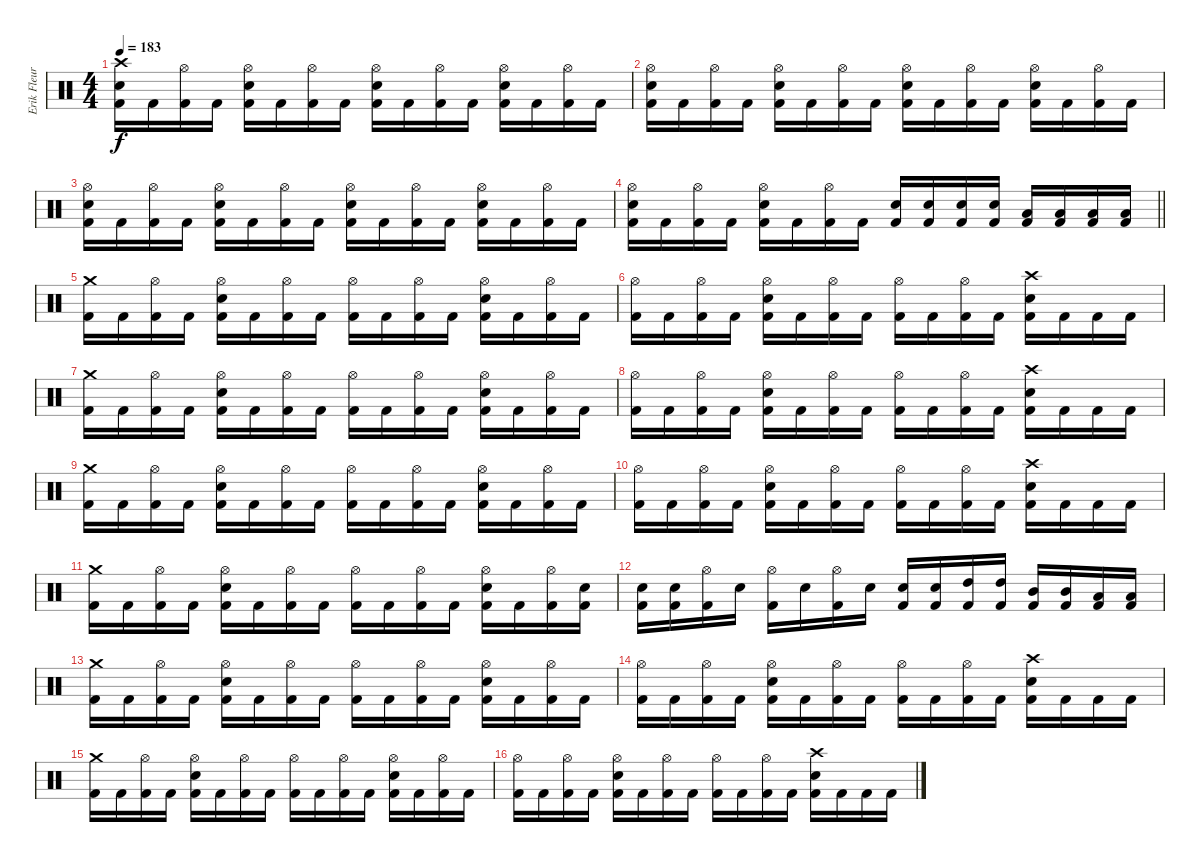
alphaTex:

\track ("Erik Fleuren" "Erik Fleur") {instrument percussion}
\staff {score}
\articulation defaults
\ts (4 4)
\tempo 183
\clef neutral
\ks c
("Crash high (hit)" "Electric Snare (hit)" "Kick (hit) 2").16{dy f} "Kick (hit) 2".16 ("Hi-Hat (open)" "Kick (hit) 2").16 "Kick (hit) 2".16 ("Hi-Hat (open)" "Electric Snare (hit)" "Kick (hit) 2").16 "Kick (hit) 2".16 ("Hi-Hat (open)" "Kick (hit) 2").16 "Kick (hit) 2".16 ("Hi-Hat (open)" "Electric Snare (hit)" "Kick (hit) 2").16 "Kick (hit) 2".16 ("Hi-Hat (open)" "Kick (hit) 2").16 "Kick (hit) 2".16 ("Hi-Hat (open)" "Electric Snare (hit)" "Kick (hit) 2").16 "Kick (hit) 2".16 ("Hi-Hat (open)" "Kick (hit) 2").16 "Kick (hit) 2".16 |
("Hi-Hat (open)" "Electric Snare (hit)" "Kick (hit) 2").16 "Kick (hit) 2".16 ("Hi-Hat (open)" "Kick (hit) 2").16 "Kick (hit) 2".16 ("Hi-Hat (open)" "Electric Snare (hit)" "Kick (hit) 2").16 "Kick (hit) 2".16 ("Hi-Hat (open)" "Kick (hit) 2").16 "Kick (hit) 2".16 ("Hi-Hat (open)" "Electric Snare (hit)" "Kick (hit) 2").16 "Kick (hit) 2".16 ("Hi-Hat (open)" "Kick (hit) 2").16 "Kick (hit) 2".16 ("Hi-Hat (open)" "Electric Snare (hit)" "Kick (hit) 2").16 "Kick (hit) 2".16 ("Hi-Hat (open)" "Kick (hit) 2").16 "Kick (hit) 2".16 |
("Hi-Hat (open)" "Electric Snare (hit)" "Kick (hit) 2").16 "Kick (hit) 2".16 ("Hi-Hat (open)" "Kick (hit) 2").16 "Kick (hit) 2".16 ("Hi-Hat (open)" "Electric Snare (hit)" "Kick (hit) 2").16 "Kick (hit) 2".16 ("Hi-Hat (open)" "Kick (hit) 2").16 "Kick (hit) 2".16 ("Hi-Hat (open)" "Electric Snare (hit)" "Kick (hit) 2").16 "Kick (hit) 2".16 ("Hi-Hat (open)" "Kick (hit) 2").16 "Kick (hit) 2".16 ("Hi-Hat (open)" "Electric Snare (hit)" "Kick (hit) 2").16 "Kick (hit) 2".16 ("Hi-Hat (open)" "Kick (hit) 2").16 "Kick (hit) 2".16 |
\barLineRight lightlight
("Hi-Hat (open)" "Electric Snare (hit)" "Kick (hit) 2").16 "Kick (hit) 2".16 ("Hi-Hat (open)" "Kick (hit) 2").16 "Kick (hit) 2".16 ("Hi-Hat (open)" "Electric Snare (hit)" "Kick (hit) 2").16 "Kick (hit) 2".16 ("Hi-Hat (open)" "Kick (hit) 2").16 "Kick (hit) 2".16 ("Electric Snare (hit)" "Kick (hit) 2").16 ("Electric Snare (hit)" "Kick (hit) 2").16 ("Electric Snare (hit)" "Kick (hit) 2").16 ("Electric Snare (hit)" "Kick (hit) 2").16 ("Low Tom (hit)" "Kick (hit) 2").16 ("Low Tom (hit)" "Kick (hit) 2").16 ("Low Tom (hit)" "Kick (hit) 2").16 ("Low Tom (hit)" "Kick (hit) 2").16 |
("Crash medium (hit)" "Kick (hit) 2").16 "Kick (hit) 2".16 ("Hi-Hat (open)" "Kick (hit) 2").16 "Kick (hit) 2".16 ("Hi-Hat (open)" "Electric Snare (hit)" "Kick (hit) 2").16 "Kick (hit) 2".16 ("Hi-Hat (open)" "Kick (hit) 2").16 "Kick (hit) 2".16 ("Hi-Hat (open)" "Kick (hit) 2").16 "Kick (hit) 2".16 ("Hi-Hat (open)" "Kick (hit) 2").16 "Kick (hit) 2".16 ("Hi-Hat (open)" "Electric Snare (hit)" "Kick (hit) 2").16 "Kick (hit) 2".16 ("Hi-Hat (open)" "Kick (hit) 2").16 "Kick (hit) 2".16 |
("Hi-Hat (open)" "Kick (hit) 2").16 "Kick (hit) 2".16 ("Hi-Hat (open)" "Kick (hit) 2").16 "Kick (hit) 2".16 ("Hi-Hat (open)" "Electric Snare (hit)" "Kick (hit) 2").16 "Kick (hit) 2".16 ("Hi-Hat (open)" "Kick (hit) 2").16 "Kick (hit) 2".16 ("Hi-Hat (open)" "Kick (hit) 2").16 "Kick (hit) 2".16 ("Hi-Hat (open)" "Kick (hit) 2").16 "Kick (hit) 2".16 ("Crash high (hit)" "Electric Snare (hit)" "Kick (hit) 2").16 "Kick (hit) 2".16 "Kick (hit) 2".16 "Kick (hit) 2".16 |
("Crash medium (hit)" "Kick (hit) 2").16 "Kick (hit) 2".16 ("Hi-Hat (open)" "Kick (hit) 2").16 "Kick (hit) 2".16 ("Hi-Hat (open)" "Electric Snare (hit)" "Kick (hit) 2").16 "Kick (hit) 2".16 ("Hi-Hat (open)" "Kick (hit) 2").16 "Kick (hit) 2".16 ("Hi-Hat (open)" "Kick (hit) 2").16 "Kick (hit) 2".16 ("Hi-Hat (open)" "Kick (hit) 2").16 "Kick (hit) 2".16 ("Hi-Hat (open)" "Electric Snare (hit)" "Kick (hit) 2").16 "Kick (hit) 2".16 ("Hi-Hat (open)" "Kick (hit) 2").16 "Kick (hit) 2".16 |
("Hi-Hat (open)" "Kick (hit) 2").16 "Kick (hit) 2".16 ("Hi-Hat (open)" "Kick (hit) 2").16 "Kick (hit) 2".16 ("Hi-Hat (open)" "Electric Snare (hit)" "Kick (hit) 2").16 "Kick (hit) 2".16 ("Hi-Hat (open)" "Kick (hit) 2").16 "Kick (hit) 2".16 ("Hi-Hat (open)" "Kick (hit) 2").16 "Kick (hit) 2".16 ("Hi-Hat (open)" "Kick (hit) 2").16 "Kick (hit) 2".16 ("Crash high (hit)" "Electric Snare (hit)" "Kick (hit) 2").16 "Kick (hit) 2".16 "Kick (hit) 2".16 "Kick (hit) 2".16 |
("Crash medium (hit)" "Kick (hit) 2").16 "Kick (hit) 2".16 ("Hi-Hat (open)" "Kick (hit) 2").16 "Kick (hit) 2".16 ("Hi-Hat (open)" "Electric Snare (hit)" "Kick (hit) 2").16 "Kick (hit) 2".16 ("Hi-Hat (open)" "Kick (hit) 2").16 "Kick (hit) 2".16 ("Hi-Hat (open)" "Kick (hit) 2").16 "Kick (hit) 2".16 ("Hi-Hat (open)" "Kick (hit) 2").16 "Kick (hit) 2".16 ("Hi-Hat (open)" "Electric Snare (hit)" "Kick (hit) 2").16 "Kick (hit) 2".16 ("Hi-Hat (open)" "Kick (hit) 2").16 "Kick (hit) 2".16 |
("Hi-Hat (open)" "Kick (hit) 2").16 "Kick (hit) 2".16 ("Hi-Hat (open)" "Kick (hit) 2").16 "Kick (hit) 2".16 ("Hi-Hat (open)" "Electric Snare (hit)" "Kick (hit) 2").16 "Kick (hit) 2".16 ("Hi-Hat (open)" "Kick (hit) 2").16 "Kick (hit) 2".16 ("Hi-Hat (open)" "Kick (hit) 2").16 "Kick (hit) 2".16 ("Hi-Hat (open)" "Kick (hit) 2").16 "Kick (hit) 2".16 ("Crash high (hit)" "Electric Snare (hit)" "Kick (hit) 2").16 "Kick (hit) 2".16 "Kick (hit) 2".16 "Kick (hit) 2".16 |
("Crash medium (hit)" "Kick (hit) 2").16 "Kick (hit) 2".16 ("Hi-Hat (open)" "Kick (hit) 2").16 "Kick (hit) 2".16 ("Hi-Hat (open)" "Electric Snare (hit)" "Kick (hit) 2").16 "Kick (hit) 2".16 ("Hi-Hat (open)" "Kick (hit) 2").16 "Kick (hit) 2".16 ("Hi-Hat (open)" "Kick (hit) 2").16 "Kick (hit) 2".16 ("Hi-Hat (open)" "Kick (hit) 2").16 "Kick (hit) 2".16 ("Hi-Hat (open)" "Electric Snare (hit)" "Kick (hit) 2").16 "Kick (hit) 2".16 ("Hi-Hat (open)" "Kick (hit) 2").16 ("Electric Snare (hit)" "Kick (hit) 2").16 |
("Electric Snare (hit)" "Kick (hit) 2").16 ("Electric Snare (hit)" "Kick (hit) 2").16 ("Hi-Hat (open)" "Kick (hit) 2").16 "Electric Snare (hit)".16 ("Hi-Hat (open)" "Kick (hit) 2").16 "Electric Snare (hit)".16 ("Hi-Hat (open)" "Kick (hit) 2").16 "Electric Snare (hit)".16 ("Electric Snare (hit)" "Kick (hit) 2").16 ("Electric Snare (hit)" "Kick (hit) 2").16 ("High Tom (hit)" "Kick (hit) 2").16 ("High Tom (hit)" "Kick (hit) 2").16 ("Mid Tom (hit)" "Kick (hit) 2").16 ("Mid Tom (hit)" "Kick (hit) 2").16 ("Low Tom (hit)" "Kick (hit) 2").16 ("Low Tom (hit)" "Kick (hit) 2").16 |
("Crash medium (hit)" "Kick (hit) 2").16 "Kick (hit) 2".16 ("Hi-Hat (open)" "Kick (hit) 2").16 "Kick (hit) 2".16 ("Hi-Hat (open)" "Electric Snare (hit)" "Kick (hit) 2").16 "Kick (hit) 2".16 ("Hi-Hat (open)" "Kick (hit) 2").16 "Kick (hit) 2".16 ("Hi-Hat (open)" "Kick (hit) 2").16 "Kick (hit) 2".16 ("Hi-Hat (open)" "Kick (hit) 2").16 "Kick (hit) 2".16 ("Hi-Hat (open)" "Electric Snare (hit)" "Kick (hit) 2").16 "Kick (hit) 2".16 ("Hi-Hat (open)" "Kick (hit) 2").16 "Kick (hit) 2".16 |
("Hi-Hat (open)" "Kick (hit) 2").16 "Kick (hit) 2".16 ("Hi-Hat (open)" "Kick (hit) 2").16 "Kick (hit) 2".16 ("Hi-Hat (open)" "Electric Snare (hit)" "Kick (hit) 2").16 "Kick (hit) 2".16 ("Hi-Hat (open)" "Kick (hit) 2").16 "Kick (hit) 2".16 ("Hi-Hat (open)" "Kick (hit) 2").16 "Kick (hit) 2".16 ("Hi-Hat (open)" "Kick (hit) 2").16 "Kick (hit) 2".16 ("Crash high (hit)" "Electric Snare (hit)" "Kick (hit) 2").16 "Kick (hit) 2".16 "Kick (hit) 2".16 "Kick (hit) 2".16 |
("Crash medium (hit)" "Kick (hit) 2").16 "Kick (hit) 2".16 ("Hi-Hat (open)" "Kick (hit) 2").16 "Kick (hit) 2".16 ("Hi-Hat (open)" "Electric Snare (hit)" "Kick (hit) 2").16 "Kick (hit) 2".16 ("Hi-Hat (open)" "Kick (hit) 2").16 "Kick (hit) 2".16 ("Hi-Hat (open)" "Kick (hit) 2").16 "Kick (hit) 2".16 ("Hi-Hat (open)" "Kick (hit) 2").16 "Kick (hit) 2".16 ("Hi-Hat (open)" "Electric Snare (hit)" "Kick (hit) 2").16 "Kick (hit) 2".16 ("Hi-Hat (open)" "Kick (hit) 2").16 "Kick (hit) 2".16 |
("Hi-Hat (open)" "Kick (hit) 2").16 "Kick (hit) 2".16 ("Hi-Hat (open)" "Kick (hit) 2").16 "Kick (hit) 2".16 ("Hi-Hat (open)" "Electric Snare (hit)" "Kick (hit) 2").16 "Kick (hit) 2".16 ("Hi-Hat (open)" "Kick (hit) 2").16 "Kick (hit) 2".16 ("Hi-Hat (open)" "Kick (hit) 2").16 "Kick (hit) 2".16 ("Hi-Hat (open)" "Kick (hit) 2").16 "Kick (hit) 2".16 ("Crash high (hit)" "Electric Snare (hit)" "Kick (hit) 2").16 "Kick (hit) 2".16 "Kick (hit) 2".16 "Kick (hit) 2".16
